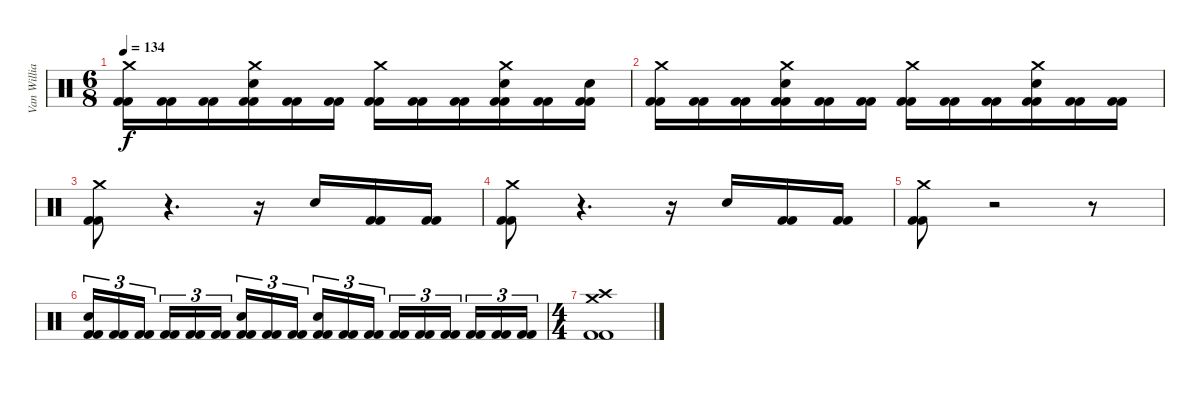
\track ("Van Williams" "Van Willia") {instrument percussion}
\staff {score}
\articulation defaults
\ts (6 8)
\tempo 134
\clef neutral
\ks c
("Crash medium (hit)" "Kick (hit) 2" "Kick (hit) 2").16{dy f} ("Kick (hit) 2" "Kick (hit) 2").16 ("Kick (hit) 2" "Kick (hit) 2").16 ("Crash medium (hit)" "Electric Snare (hit)" "Kick (hit) 2" "Kick (hit) 2").16 ("Kick (hit) 2" "Kick (hit) 2").16 ("Kick (hit) 2" "Kick (hit) 2").16 ("Crash medium (hit)" "Kick (hit) 2" "Kick (hit) 2").16 ("Kick (hit) 2" "Kick (hit) 2").16 ("Kick (hit) 2" "Kick (hit) 2").16 ("Crash medium (hit)" "Electric Snare (hit)" "Kick (hit) 2" "Kick (hit) 2").16 ("Kick (hit) 2" "Kick (hit) 2").16 ("Electric Snare (hit)" "Kick (hit) 2" "Kick (hit) 2").16 |
("Crash medium (hit)" "Kick (hit) 2" "Kick (hit) 2").16 ("Kick (hit) 2" "Kick (hit) 2").16 ("Kick (hit) 2" "Kick (hit) 2").16 ("Crash medium (hit)" "Electric Snare (hit)" "Kick (hit) 2" "Kick (hit) 2").16 ("Kick (hit) 2" "Kick (hit) 2").16 ("Kick (hit) 2" "Kick (hit) 2").16 ("Crash medium (hit)" "Kick (hit) 2" "Kick (hit) 2").16 ("Kick (hit) 2" "Kick (hit) 2").16 ("Kick (hit) 2" "Kick (hit) 2").16 ("Crash medium (hit)" "Electric Snare (hit)" "Kick (hit) 2" "Kick (hit) 2").16 ("Kick (hit) 2" "Kick (hit) 2").16 ("Kick (hit) 2" "Kick (hit) 2").16 |
("Crash medium (hit)" "Kick (hit) 2" "Kick (hit) 2").8 r.4{d volume 0} r.16 "Electric Snare (hit)".16{volume 16} ("Kick (hit) 2" "Kick (hit) 2").16 ("Kick (hit) 2" "Kick (hit) 2").16 |
("Crash medium (hit)" "Kick (hit) 2" "Kick (hit) 2").8 r.4{d volume 0} r.16 "Electric Snare (hit)".16{volume 16} ("Kick (hit) 2" "Kick (hit) 2").16 ("Kick (hit) 2" "Kick (hit) 2").16 |
("Crash medium (hit)" "Kick (hit) 2" "Kick (hit) 2").8 r.2{volume 0} r.8 |
("Electric Snare (hit)" "Kick (hit) 2" "Kick (hit) 2").16{tu (3 2) volume 16} ("Kick (hit) 2" "Kick (hit) 2").16{tu (3 2)} ("Kick (hit) 2" "Kick (hit) 2").16{tu (3 2) beam splitsecondary} ("Kick (hit) 2" "Kick (hit) 2").16{tu (3 2)} ("Kick (hit) 2" "Kick (hit) 2").16{tu (3 2)} ("Kick (hit) 2" "Kick (hit) 2").16{tu (3 2) beam splitsecondary} ("Electric Snare (hit)" "Kick (hit) 2" "Kick (hit) 2").16{tu (3 2)} ("Kick (hit) 2" "Kick (hit) 2").16{tu (3 2)} ("Kick (hit) 2" "Kick (hit) 2").16{tu (3 2)} ("Electric Snare (hit)" "Kick (hit) 2" "Kick (hit) 2").16{tu (3 2)} ("Kick (hit) 2" "Kick (hit) 2").16{tu (3 2)} ("Kick (hit) 2" "Kick (hit) 2").16{tu (3 2) beam splitsecondary} ("Kick (hit) 2" "Kick (hit) 2").16{tu (3 2)} ("Kick (hit) 2" "Kick (hit) 2").16{tu (3 2)} ("Kick (hit) 2" "Kick (hit) 2").16{tu (3 2) beam splitsecondary} ("Kick (hit) 2" "Kick (hit) 2").16{tu (3 2)} ("Kick (hit) 2" "Kick (hit) 2").16{tu (3 2)} ("Kick (hit) 2" "Kick (hit) 2").16{tu (3 2)} |
\ts (4 4)
("Crash medium (hit)" "Crash high (hit)" "Kick (hit) 2" "Kick (hit) 2").1
